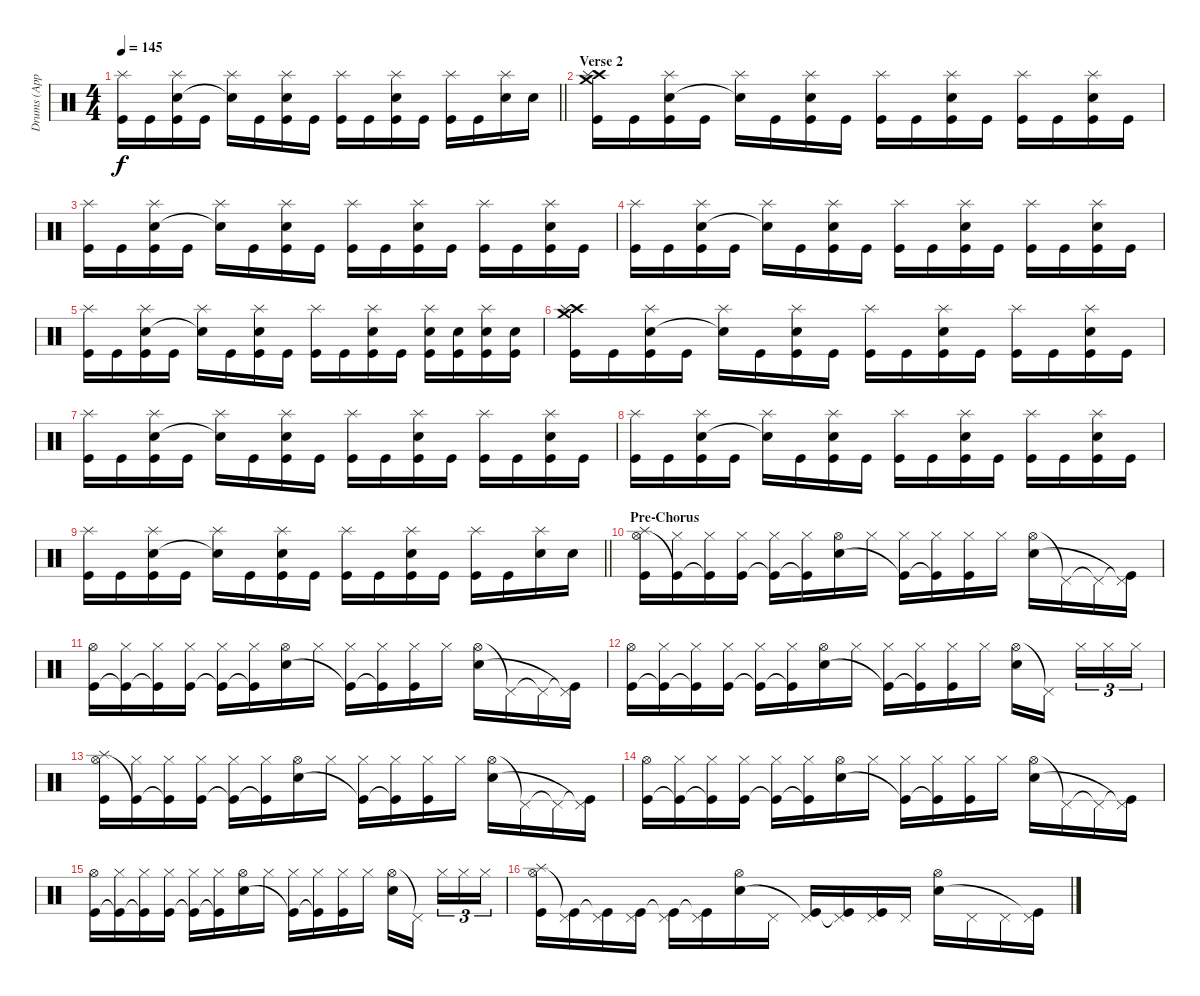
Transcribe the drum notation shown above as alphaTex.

\track ("Drums (Approx.)" "Drums (App") {instrument percussion}
\staff {score}
\articulation defaults
\ts (4 4)
\tempo 145
\clef neutral
\barLineRight lightlight
\ks c
("Splash (hit)" "Kick (hit)").16{dy f} "Kick (hit)".16 ("Splash (hit)" "Electric Snare (hit)" "Kick (hit)").16 "Kick (hit)".16 ("Splash (hit)" "Snare (hit)"{t}).16 "Kick (hit)".16 ("Splash (hit)" "Electric Snare (hit)" "Kick (hit)").16 "Kick (hit)".16 ("Splash (hit)" "Kick (hit)").16 "Kick (hit)".16 ("Splash (hit)" "Electric Snare (hit)" "Kick (hit)").16 "Kick (hit)".16 ("Splash (hit)" "Kick (hit)").16 "Kick (hit)".16 ("Splash (hit)" "Electric Snare (hit)").16 "Electric Snare (hit)".16 |
\section ("" "Verse 2")
("Crash high (hit)" "Crash medium (hit)" "Splash (hit)" "Kick (hit)").16 "Kick (hit)".16 ("Splash (hit)" "Electric Snare (hit)" "Kick (hit)").16 "Kick (hit)".16 ("Splash (hit)" "Snare (hit)"{t}).16 "Kick (hit)".16 ("Splash (hit)" "Electric Snare (hit)" "Kick (hit)").16 "Kick (hit)".16 ("Splash (hit)" "Kick (hit)").16 "Kick (hit)".16 ("Splash (hit)" "Electric Snare (hit)" "Kick (hit)").16 "Kick (hit)".16 ("Splash (hit)" "Kick (hit)").16 "Kick (hit)".16 ("Splash (hit)" "Electric Snare (hit)" "Kick (hit)").16 "Kick (hit)".16 |
("Splash (hit)" "Kick (hit)").16 "Kick (hit)".16 ("Splash (hit)" "Electric Snare (hit)" "Kick (hit)").16 "Kick (hit)".16 ("Splash (hit)" "Snare (hit)"{t}).16 "Kick (hit)".16 ("Splash (hit)" "Electric Snare (hit)" "Kick (hit)").16 "Kick (hit)".16 ("Splash (hit)" "Kick (hit)").16 "Kick (hit)".16 ("Splash (hit)" "Electric Snare (hit)" "Kick (hit)").16 "Kick (hit)".16 ("Splash (hit)" "Kick (hit)").16 "Kick (hit)".16 ("Splash (hit)" "Electric Snare (hit)" "Kick (hit)").16 "Kick (hit)".16 |
("Splash (hit)" "Kick (hit)").16 "Kick (hit)".16 ("Splash (hit)" "Electric Snare (hit)" "Kick (hit)").16 "Kick (hit)".16 ("Splash (hit)" "Snare (hit)"{t}).16 "Kick (hit)".16 ("Splash (hit)" "Electric Snare (hit)" "Kick (hit)").16 "Kick (hit)".16 ("Splash (hit)" "Kick (hit)").16 "Kick (hit)".16 ("Splash (hit)" "Electric Snare (hit)" "Kick (hit)").16 "Kick (hit)".16 ("Splash (hit)" "Kick (hit)").16 "Kick (hit)".16 ("Splash (hit)" "Electric Snare (hit)" "Kick (hit)").16 "Kick (hit)".16 |
("Splash (hit)" "Kick (hit)").16 "Kick (hit)".16 ("Splash (hit)" "Electric Snare (hit)" "Kick (hit)").16 "Kick (hit)".16 ("Splash (hit)" "Snare (hit)"{t}).16 "Kick (hit)".16 ("Splash (hit)" "Electric Snare (hit)" "Kick (hit)").16 "Kick (hit)".16 ("Splash (hit)" "Kick (hit)").16 "Kick (hit)".16 ("Splash (hit)" "Electric Snare (hit)" "Kick (hit)").16 "Kick (hit)".16 ("Splash (hit)" "Electric Snare (hit)" "Kick (hit)").16 ("Electric Snare (hit)" "Kick (hit)").16 ("Splash (hit)" "Electric Snare (hit)" "Kick (hit)").16 ("Electric Snare (hit)" "Kick (hit)").16 |
("Crash high (hit)" "Crash medium (hit)" "Splash (hit)" "Kick (hit)").16 "Kick (hit)".16 ("Splash (hit)" "Electric Snare (hit)" "Kick (hit)").16 "Kick (hit)".16 ("Splash (hit)" "Snare (hit)"{t}).16 "Kick (hit)".16 ("Splash (hit)" "Electric Snare (hit)" "Kick (hit)").16 "Kick (hit)".16 ("Splash (hit)" "Kick (hit)").16 "Kick (hit)".16 ("Splash (hit)" "Electric Snare (hit)" "Kick (hit)").16 "Kick (hit)".16 ("Splash (hit)" "Kick (hit)").16 "Kick (hit)".16 ("Splash (hit)" "Electric Snare (hit)" "Kick (hit)").16 "Kick (hit)".16 |
("Splash (hit)" "Kick (hit)").16 "Kick (hit)".16 ("Splash (hit)" "Electric Snare (hit)" "Kick (hit)").16 "Kick (hit)".16 ("Splash (hit)" "Snare (hit)"{t}).16 "Kick (hit)".16 ("Splash (hit)" "Electric Snare (hit)" "Kick (hit)").16 "Kick (hit)".16 ("Splash (hit)" "Kick (hit)").16 "Kick (hit)".16 ("Splash (hit)" "Electric Snare (hit)" "Kick (hit)").16 "Kick (hit)".16 ("Splash (hit)" "Kick (hit)").16 "Kick (hit)".16 ("Splash (hit)" "Electric Snare (hit)" "Kick (hit)").16 "Kick (hit)".16 |
("Splash (hit)" "Kick (hit)").16 "Kick (hit)".16 ("Splash (hit)" "Electric Snare (hit)" "Kick (hit)").16 "Kick (hit)".16 ("Splash (hit)" "Snare (hit)"{t}).16 "Kick (hit)".16 ("Splash (hit)" "Electric Snare (hit)" "Kick (hit)").16 "Kick (hit)".16 ("Splash (hit)" "Kick (hit)").16 "Kick (hit)".16 ("Splash (hit)" "Electric Snare (hit)" "Kick (hit)").16 "Kick (hit)".16 ("Splash (hit)" "Kick (hit)").16 "Kick (hit)".16 ("Splash (hit)" "Electric Snare (hit)" "Kick (hit)").16 "Kick (hit)".16 |
\barLineRight lightlight
("Splash (hit)" "Kick (hit)").16 "Kick (hit)".16 ("Splash (hit)" "Electric Snare (hit)" "Kick (hit)").16 "Kick (hit)".16 ("Splash (hit)" "Snare (hit)"{t}).16 "Kick (hit)".16 ("Splash (hit)" "Electric Snare (hit)" "Kick (hit)").16 "Kick (hit)".16 ("Splash (hit)" "Kick (hit)").16 "Kick (hit)".16 ("Splash (hit)" "Electric Snare (hit)" "Kick (hit)").16 "Kick (hit)".16 ("Splash (hit)" "Kick (hit)").16 "Kick (hit)".16 ("Splash (hit)" "Electric Snare (hit)").16 "Electric Snare (hit)".16 |
\section ("" "Pre-Chorus")
("Splash (hit)" "Hi-Hat (open)" "Kick (hit)").16 ("Hi-Hat (closed)" "Kick (hit)"{t}).16 ("Hi-Hat (closed)" "Kick (hit)"{t}).16 ("Hi-Hat (closed)" "Kick (hit)").16 ("Hi-Hat (closed)" "Kick (hit)"{t}).16 ("Hi-Hat (closed)" "Kick (hit)"{t}).16 ("Hi-Hat (open)" "Electric Snare (hit)").16 "Hi-Hat (closed)".16 ("Hi-Hat (closed)" "Kick (hit)"{t}).16 ("Hi-Hat (closed)" "Kick (hit)"{t}).16 ("Hi-Hat (closed)" "Kick (hit)").16 "Hi-Hat (closed)".16 ("Hi-Hat (open)" "Electric Snare (hit)").16 "Pedal Hi-Hat (hit)"{t}.16 "Pedal Hi-Hat (hit)"{t}.16 ("Pedal Hi-Hat (hit)"{t} "Kick (hit)"{t}).16 |
("Hi-Hat (open)" "Kick (hit)").16 ("Hi-Hat (closed)" "Kick (hit)"{t}).16 ("Hi-Hat (closed)" "Kick (hit)"{t}).16 ("Hi-Hat (closed)" "Kick (hit)").16 ("Hi-Hat (closed)" "Kick (hit)"{t}).16 ("Hi-Hat (closed)" "Kick (hit)"{t}).16 ("Hi-Hat (open)" "Electric Snare (hit)").16 "Hi-Hat (closed)".16 ("Hi-Hat (closed)" "Kick (hit)"{t}).16 ("Hi-Hat (closed)" "Kick (hit)"{t}).16 ("Hi-Hat (closed)" "Kick (hit)").16 "Hi-Hat (closed)".16 ("Hi-Hat (open)" "Electric Snare (hit)").16 "Pedal Hi-Hat (hit)"{t}.16 "Pedal Hi-Hat (hit)"{t}.16 ("Pedal Hi-Hat (hit)"{t} "Kick (hit)"{t}).16 |
("Hi-Hat (open)" "Kick (hit)").16 ("Hi-Hat (closed)" "Kick (hit)"{t}).16 ("Hi-Hat (closed)" "Kick (hit)"{t}).16 ("Hi-Hat (closed)" "Kick (hit)").16 ("Hi-Hat (closed)" "Kick (hit)"{t}).16 ("Hi-Hat (closed)" "Kick (hit)"{t}).16 ("Hi-Hat (open)" "Electric Snare (hit)").16 "Hi-Hat (closed)".16 ("Hi-Hat (closed)" "Kick (hit)"{t}).16 ("Hi-Hat (closed)" "Kick (hit)"{t}).16 ("Hi-Hat (closed)" "Kick (hit)").16 "Hi-Hat (closed)".16 ("Hi-Hat (open)" "Electric Snare (hit)").16 "Pedal Hi-Hat (hit)"{t}.16{beam splitsecondary} "Hi-Hat (closed)".16{tu (3 2)} "Hi-Hat (closed)".16{tu (3 2)} "Hi-Hat (closed)".16{tu (3 2)} |
("Splash (hit)" "Hi-Hat (open)" "Kick (hit)").16 ("Hi-Hat (closed)" "Kick (hit)"{t}).16 ("Hi-Hat (closed)" "Kick (hit)"{t}).16 ("Hi-Hat (closed)" "Kick (hit)").16 ("Hi-Hat (closed)" "Kick (hit)"{t}).16 ("Hi-Hat (closed)" "Kick (hit)"{t}).16 ("Hi-Hat (open)" "Electric Snare (hit)").16 "Hi-Hat (closed)".16 ("Hi-Hat (closed)" "Kick (hit)"{t}).16 ("Hi-Hat (closed)" "Kick (hit)"{t}).16 ("Hi-Hat (closed)" "Kick (hit)").16 "Hi-Hat (closed)".16 ("Hi-Hat (open)" "Electric Snare (hit)").16 "Pedal Hi-Hat (hit)"{t}.16 "Pedal Hi-Hat (hit)"{t}.16 ("Pedal Hi-Hat (hit)"{t} "Kick (hit)"{t}).16 |
("Hi-Hat (open)" "Kick (hit)").16 ("Hi-Hat (closed)" "Kick (hit)"{t}).16 ("Hi-Hat (closed)" "Kick (hit)"{t}).16 ("Hi-Hat (closed)" "Kick (hit)").16 ("Hi-Hat (closed)" "Kick (hit)"{t}).16 ("Hi-Hat (closed)" "Kick (hit)"{t}).16 ("Hi-Hat (open)" "Electric Snare (hit)").16 "Hi-Hat (closed)".16 ("Hi-Hat (closed)" "Kick (hit)"{t}).16 ("Hi-Hat (closed)" "Kick (hit)"{t}).16 ("Hi-Hat (closed)" "Kick (hit)").16 "Hi-Hat (closed)".16 ("Hi-Hat (open)" "Electric Snare (hit)").16 "Pedal Hi-Hat (hit)"{t}.16 "Pedal Hi-Hat (hit)"{t}.16 ("Pedal Hi-Hat (hit)"{t} "Kick (hit)"{t}).16 |
("Hi-Hat (open)" "Kick (hit)").16 ("Hi-Hat (closed)" "Kick (hit)"{t}).16 ("Hi-Hat (closed)" "Kick (hit)"{t}).16 ("Hi-Hat (closed)" "Kick (hit)").16 ("Hi-Hat (closed)" "Kick (hit)"{t}).16 ("Hi-Hat (closed)" "Kick (hit)"{t}).16 ("Hi-Hat (open)" "Electric Snare (hit)").16 "Hi-Hat (closed)".16 ("Hi-Hat (closed)" "Kick (hit)"{t}).16 ("Hi-Hat (closed)" "Kick (hit)"{t}).16 ("Hi-Hat (closed)" "Kick (hit)").16 "Hi-Hat (closed)".16 ("Hi-Hat (open)" "Electric Snare (hit)").16 "Pedal Hi-Hat (hit)"{t}.16{beam splitsecondary} "Hi-Hat (closed)".16{tu (3 2)} "Hi-Hat (closed)".16{tu (3 2)} "Hi-Hat (closed)".16{tu (3 2)} |
("Splash (hit)" "Hi-Hat (open)" "Kick (hit)").16 ("Pedal Hi-Hat (hit)" "Kick (hit)"{t}).16 ("Pedal Hi-Hat (hit)" "Kick (hit)"{t}).16 ("Pedal Hi-Hat (hit)" "Kick (hit)").16 ("Pedal Hi-Hat (hit)" "Kick (hit)"{t}).16 ("Pedal Hi-Hat (hit)" "Kick (hit)"{t}).16 ("Hi-Hat (open)" "Electric Snare (hit)").16 "Pedal Hi-Hat (hit)".16 ("Pedal Hi-Hat (hit)" "Kick (hit)"{t}).16 ("Pedal Hi-Hat (hit)" "Kick (hit)"{t}).16 ("Pedal Hi-Hat (hit)" "Kick (hit)").16 "Pedal Hi-Hat (hit)".16 ("Hi-Hat (open)" "Electric Snare (hit)").16 "Pedal Hi-Hat (hit)".16 "Pedal Hi-Hat (hit)".16 ("Pedal Hi-Hat (hit)" "Kick (hit)"{t}).16
